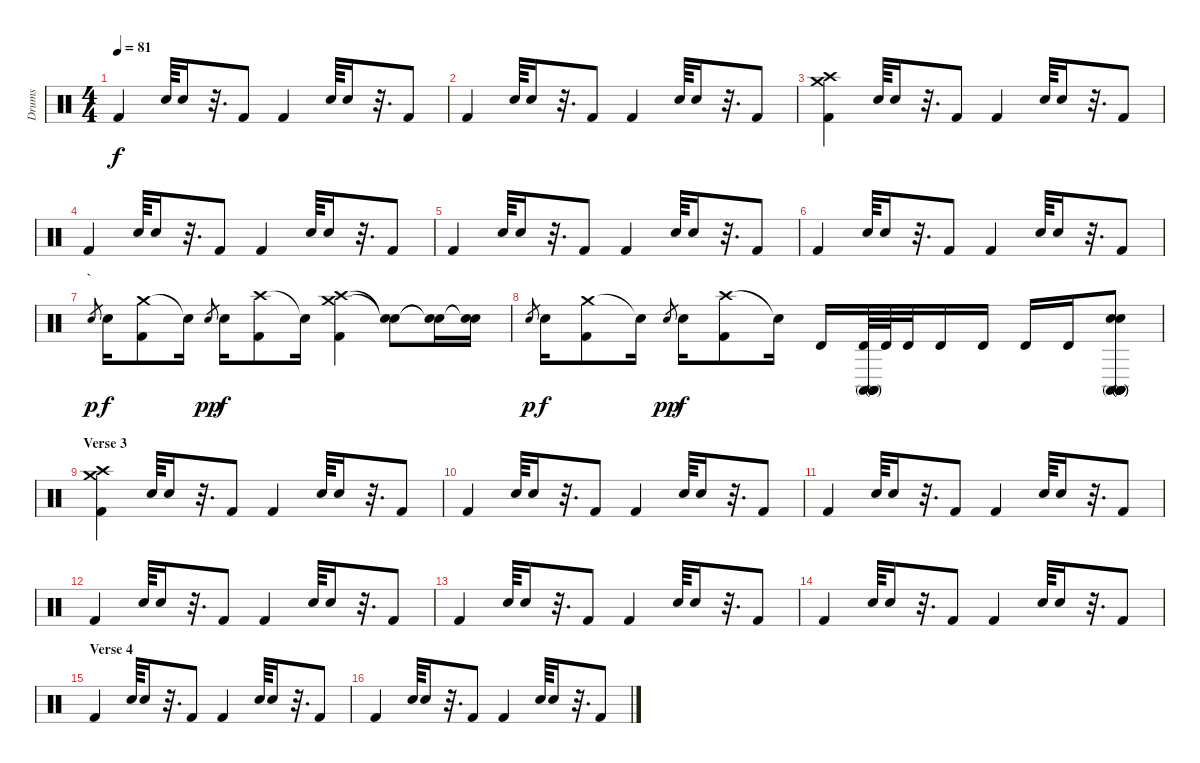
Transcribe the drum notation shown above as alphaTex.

\track ("Drums" "Drums") {instrument percussion}
\staff {score}
\articulation defaults
\ts (4 4)
\tempo 81
\clef neutral
\ks c "Kick (hit) 2".4{dy f} "Electric Snare (hit)".64 "Electric Snare (hit)".16
r.32{d} "Kick (hit) 2".8 "Kick (hit) 2".4 "Electric Snare (hit)".64 "Electric Snare (hit)".16 r.32{d} "Kick (hit) 2".8 |
"Kick (hit) 2".4 "Electric Snare (hit)".64 "Electric Snare (hit)".16 r.32{d} "Kick (hit) 2".8 "Kick (hit) 2".4 "Electric Snare (hit)".64 "Electric Snare (hit)".16 r.32{d} "Kick (hit) 2".8 |
("Crash high (hit)" "Crash medium (hit)" "Kick (hit) 2").4 "Electric Snare (hit)".64 "Electric Snare (hit)".16 r.32{d} "Kick (hit) 2".8 "Kick (hit) 2".4 "Electric Snare (hit)".64 "Electric Snare (hit)".16 r.32{d} "Kick (hit) 2".8 |
"Kick (hit) 2".4 "Electric Snare (hit)".64 "Electric Snare (hit)".16 r.32{d} "Kick (hit) 2".8 "Kick (hit) 2".4 "Electric Snare (hit)".64 "Electric Snare (hit)".16 r.32{d} "Kick (hit) 2".8 |
"Kick (hit) 2".4 "Electric Snare (hit)".64 "Electric Snare (hit)".16 r.32{d} "Kick (hit) 2".8 "Kick (hit) 2".4 "Electric Snare (hit)".64 "Electric Snare (hit)".16 r.32{d} "Kick (hit) 2".8 |
"Kick (hit) 2".4 "Electric Snare (hit)".64 "Electric Snare (hit)".16 r.32{d} "Kick (hit) 2".8 "Kick (hit) 2".4 "Electric Snare (hit)".64 "Electric Snare (hit)".16 r.32{d} "Kick (hit) 2".8 |
\section ("" "`")
"Electric Snare (hit)".8{gr dy p} "Electric Snare (hit)".16{dy f} ("Crash medium (hit)" "Kick (hit) 2").8 "Snare (hit)"{t}.16 "Electric Snare (hit)".8{gr dy pp} "Electric Snare (hit)".16{dy f} ("Crash high (hit)" "Kick (hit) 2").8 "Snare (hit)"{t}.16 ("Crash high (hit)" "Crash medium (hit)" "Kick (hit) 2").4 ("Snare (hit)"{t} "Snare (hit)"{t}).8 ("Snare (hit)"{t} "Snare (hit)"{t}).16 ("Snare (hit)"{t} "Snare (hit)"{t}).16 |
"Electric Snare (hit)".8{gr dy p} "Electric Snare (hit)".16{dy f} ("Crash medium (hit)" "Kick (hit) 2").8 "Snare (hit)"{t}.16 "Electric Snare (hit)".8{gr dy pp} "Electric Snare (hit)".16{dy f} ("Crash high (hit)" "Kick (hit) 2").8 "Snare (hit)"{t}.16 "Timbale high (hit)".16 ("Timbale high (hit)" "Conga high (mute)" "Conga high (mute)" "Conga high (mute)").64 "Timbale high (hit)".64 "Timbale high (hit)".32 "Timbale high (hit)".16 "Timbale high (hit)".16 "Timbale high (hit)".16 "Timbale high (hit)".16 ("Snare (hit)"{x} "Conga high (mute)" "Conga high (mute)" "Conga high (mute)" "Conga high (mute)" "Snare (hit)"{x}).8 |
\section ("" "Verse 3")
("Crash medium (hit)" "Crash high (hit)" "Kick (hit) 2").4 "Electric Snare (hit)".64 "Electric Snare (hit)".16 r.32{d} "Kick (hit) 2".8 "Kick (hit) 2".4 "Electric Snare (hit)".64 "Electric Snare (hit)".16 r.32{d} "Kick (hit) 2".8 |
"Kick (hit) 2".4 "Electric Snare (hit)".64 "Electric Snare (hit)".16 r.32{d} "Kick (hit) 2".8 "Kick (hit) 2".4 "Electric Snare (hit)".64 "Electric Snare (hit)".16 r.32{d} "Kick (hit) 2".8 |
"Kick (hit) 2".4 "Electric Snare (hit)".64 "Electric Snare (hit)".16 r.32{d} "Kick (hit) 2".8 "Kick (hit) 2".4 "Electric Snare (hit)".64 "Electric Snare (hit)".16 r.32{d} "Kick (hit) 2".8 |
"Kick (hit) 2".4 "Electric Snare (hit)".64 "Electric Snare (hit)".16 r.32{d} "Kick (hit) 2".8 "Kick (hit) 2".4 "Electric Snare (hit)".64 "Electric Snare (hit)".16 r.32{d} "Kick (hit) 2".8 |
"Kick (hit) 2".4 "Electric Snare (hit)".64 "Electric Snare (hit)".16 r.32{d} "Kick (hit) 2".8 "Kick (hit) 2".4 "Electric Snare (hit)".64 "Electric Snare (hit)".16 r.32{d} "Kick (hit) 2".8 |
"Kick (hit) 2".4 "Electric Snare (hit)".64 "Electric Snare (hit)".16 r.32{d} "Kick (hit) 2".8 "Kick (hit) 2".4 "Electric Snare (hit)".64 "Electric Snare (hit)".16 r.32{d} "Kick (hit) 2".8 |
\section ("" "Verse 4")
"Kick (hit) 2".4 "Electric Snare (hit)".64 "Electric Snare (hit)".16 r.32{d} "Kick (hit) 2".8 "Kick (hit) 2".4 "Electric Snare (hit)".64 "Electric Snare (hit)".16 r.32{d} "Kick (hit) 2".8 |
"Kick (hit) 2".4 "Electric Snare (hit)".64 "Electric Snare (hit)".16 r.32{d} "Kick (hit) 2".8 "Kick (hit) 2".4 "Electric Snare (hit)".64 "Electric Snare (hit)".16 r.32{d} "Kick (hit) 2".8
